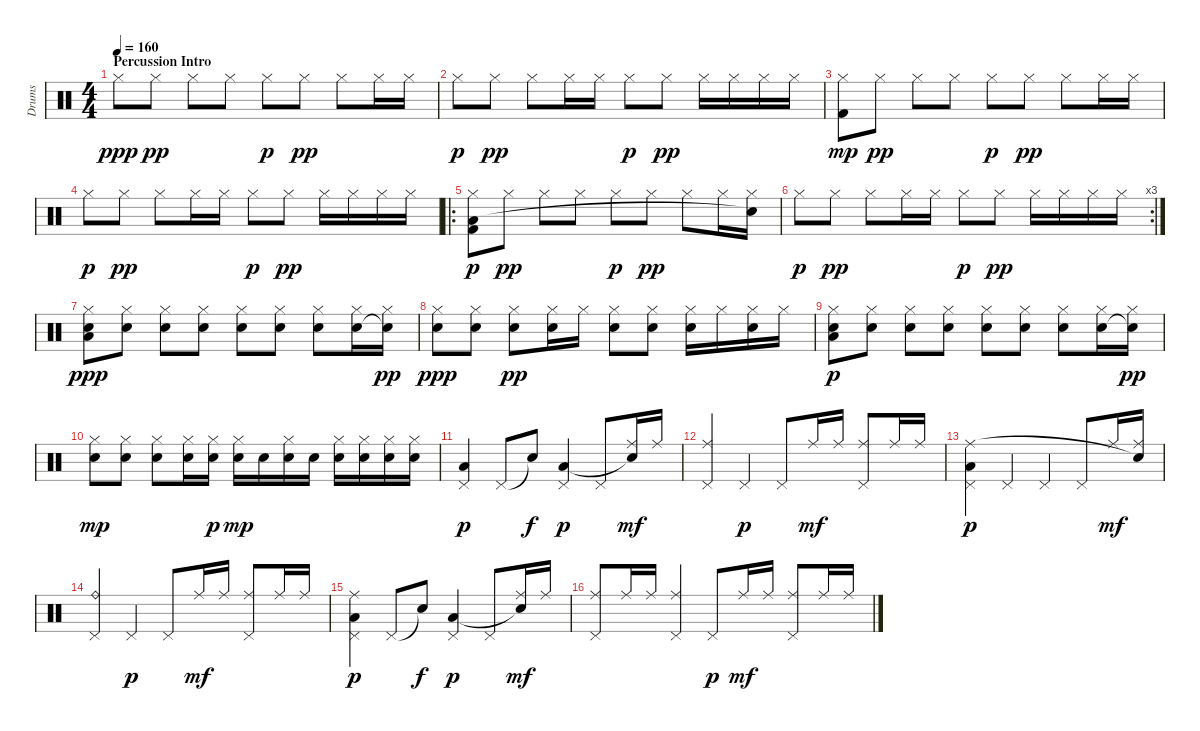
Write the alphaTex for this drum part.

\track ("Drums" "Drums") {instrument percussion}
\staff {score}
\articulation defaults
\ts (4 4)
\section ("" "Percussion Intro")
\tempo 160
\clef neutral
\ks c "Hi-Hat (closed)".8{dy ppp} "Hi-Hat (closed)".8{dy pp} "Hi-Hat (closed)".8 "Hi-Hat (closed)".8 "Hi-Hat (closed)".8{dy p} "Hi-Hat (closed)".8{dy pp} "Hi-Hat (closed)".8 "Hi-Hat (closed)".16 "Hi-Hat (closed)".16
|
"Hi-Hat (closed)".8{dy p} "Hi-Hat (closed)".8{dy pp} "Hi-Hat (closed)".8 "Hi-Hat (closed)".16 "Hi-Hat (closed)".16 "Hi-Hat (closed)".8{dy p} "Hi-Hat (closed)".8{dy pp} "Hi-Hat (closed)".16 "Hi-Hat (closed)".16 "Hi-Hat (closed)".16 "Hi-Hat (closed)".16 |
("Hi-Hat (closed)" "Kick (hit) 2").8{dy mp} "Hi-Hat (closed)".8{dy pp} "Hi-Hat (closed)".8 "Hi-Hat (closed)".8 "Hi-Hat (closed)".8{dy p} "Hi-Hat (closed)".8{dy pp} "Hi-Hat (closed)".8 "Hi-Hat (closed)".16 "Hi-Hat (closed)".16 |
"Hi-Hat (closed)".8{dy p} "Hi-Hat (closed)".8{dy pp} "Hi-Hat (closed)".8 "Hi-Hat (closed)".16 "Hi-Hat (closed)".16 "Hi-Hat (closed)".8{dy p} "Hi-Hat (closed)".8{dy pp} "Hi-Hat (closed)".16 "Hi-Hat (closed)".16 "Hi-Hat (closed)".16 "Hi-Hat (closed)".16 |
\ro
("Hi-Hat (closed)" "Low Floor Tom (hit)" "Kick (hit) 2").8{dy p} "Hi-Hat (closed)".8{dy pp} "Hi-Hat (closed)".8 "Hi-Hat (closed)".8 "Hi-Hat (closed)".8{dy p} "Hi-Hat (closed)".8{dy pp} "Hi-Hat (closed)".8 "Hi-Hat (closed)".16 ("Hi-Hat (closed)" "Snare (hit)"{t}).16 |
\rc 3 "Hi-Hat (closed)".8{dy p} "Hi-Hat (closed)".8{dy pp} "Hi-Hat (closed)".8 "Hi-Hat (closed)".16 "Hi-Hat (closed)".16 "Hi-Hat (closed)".8{dy p} "Hi-Hat (closed)".8{dy pp} "Hi-Hat (closed)".16 "Hi-Hat (closed)".16 "Hi-Hat (closed)".16 "Hi-Hat (closed)".16
|
("Hi-Hat (closed)" "Low Floor Tom (hit)" "Electric Snare (hit)").8{dy ppp} ("Hi-Hat (closed)" "Electric Snare (hit)").8 ("Hi-Hat (closed)" "Electric Snare (hit)").8 ("Hi-Hat (closed)" "Electric Snare (hit)").8 ("Hi-Hat (closed)" "Electric Snare (hit)").8 ("Hi-Hat (closed)" "Electric Snare (hit)").8 ("Hi-Hat (closed)" "Electric Snare (hit)").8 ("Hi-Hat (closed)" "Electric Snare (hit)").16 ("Hi-Hat (closed)" "Snare (hit)"{t}).16{dy pp} |
("Hi-Hat (closed)" "Electric Snare (hit)").8{dy ppp} ("Hi-Hat (closed)" "Electric Snare (hit)").8 ("Hi-Hat (closed)" "Electric Snare (hit)").8{dy pp} ("Hi-Hat (closed)" "Electric Snare (hit)").16 "Hi-Hat (closed)".16 ("Hi-Hat (closed)" "Electric Snare (hit)").8 ("Hi-Hat (closed)" "Electric Snare (hit)").8 ("Hi-Hat (closed)" "Electric Snare (hit)").16 "Hi-Hat (closed)".16 ("Hi-Hat (closed)" "Electric Snare (hit)").16 "Hi-Hat (closed)".16 |
("Hi-Hat (closed)" "Low Floor Tom (hit)" "Electric Snare (hit)").8{dy p} ("Hi-Hat (closed)" "Electric Snare (hit)").8 ("Hi-Hat (closed)" "Electric Snare (hit)").8 ("Hi-Hat (closed)" "Electric Snare (hit)").8 ("Hi-Hat (closed)" "Electric Snare (hit)").8 ("Hi-Hat (closed)" "Electric Snare (hit)").8 ("Hi-Hat (closed)" "Electric Snare (hit)").8 ("Hi-Hat (closed)" "Electric Snare (hit)").16 ("Hi-Hat (closed)" "Snare (hit)"{t}).16{dy pp} |
("Hi-Hat (closed)" "Electric Snare (hit)").8{dy mp} ("Hi-Hat (closed)" "Electric Snare (hit)").8 ("Hi-Hat (closed)" "Electric Snare (hit)").8 ("Hi-Hat (closed)" "Electric Snare (hit)").16 ("Hi-Hat (closed)" "Electric Snare (hit)").16{dy p} ("Hi-Hat (closed)" "Electric Snare (hit)").16{dy mp} "Electric Snare (hit)".16 ("Hi-Hat (closed)" "Electric Snare (hit)").16 "Electric Snare (hit)".16 ("Hi-Hat (closed)" "Electric Snare (hit)").16 ("Hi-Hat (closed)" "Electric Snare (hit)").16 ("Hi-Hat (closed)" "Electric Snare (hit)").16 ("Hi-Hat (closed)" "Electric Snare (hit)").16 |
("Pedal Hi-Hat (hit)" "Low Floor Tom (hit)").4{dy p} "Pedal Hi-Hat (hit)".8 "Snare (hit)"{t}.8{dy f} ("Pedal Hi-Hat (hit)" "Low Floor Tom (hit)").4{dy p} "Pedal Hi-Hat (hit)".8 ("Ride (middle)" "Snare (hit)"{t}).16{dy mf} "Ride (middle)".16 |
("Pedal Hi-Hat (hit)" "Ride (middle)").4 "Pedal Hi-Hat (hit)".4{dy p} "Pedal Hi-Hat (hit)".8 "Ride (middle)".16{dy mf} "Ride (middle)".16 ("Pedal Hi-Hat (hit)" "Ride (middle)").8 "Ride (middle)".16 "Ride (middle)".16 |
("Pedal Hi-Hat (hit)" "Ride (middle)" "Low Floor Tom (hit)").4{dy p} "Pedal Hi-Hat (hit)".4 "Pedal Hi-Hat (hit)".4 "Pedal Hi-Hat (hit)".8 "Ride (middle)".16{dy mf} ("Ride (middle)" "Snare (hit)"{t}).16 |
("Pedal Hi-Hat (hit)" "Ride (bell)").4 "Pedal Hi-Hat (hit)".4{dy p} "Pedal Hi-Hat (hit)".8 "Ride (middle)".16{dy mf} "Ride (middle)".16 ("Pedal Hi-Hat (hit)" "Ride (middle)").8 "Ride (middle)".16 "Ride (middle)".16 |
("Pedal Hi-Hat (hit)" "Ride (middle)" "Low Floor Tom (hit)").4{dy p} "Pedal Hi-Hat (hit)".8 "Snare (hit)"{t}.8{dy f} ("Pedal Hi-Hat (hit)" "Low Floor Tom (hit)").4{dy p} "Pedal Hi-Hat (hit)".8 ("Ride (middle)" "Snare (hit)"{t}).16{dy mf} "Ride (middle)".16 |
("Pedal Hi-Hat (hit)" "Ride (middle)").8 "Ride (middle)".16 "Ride (middle)".16 ("Pedal Hi-Hat (hit)" "Ride (middle)").4 "Pedal Hi-Hat (hit)".8{dy p} "Ride (middle)".16{dy mf} "Ride (middle)".16 ("Pedal Hi-Hat (hit)" "Ride (middle)").8 "Ride (middle)".16 "Ride (middle)".16
